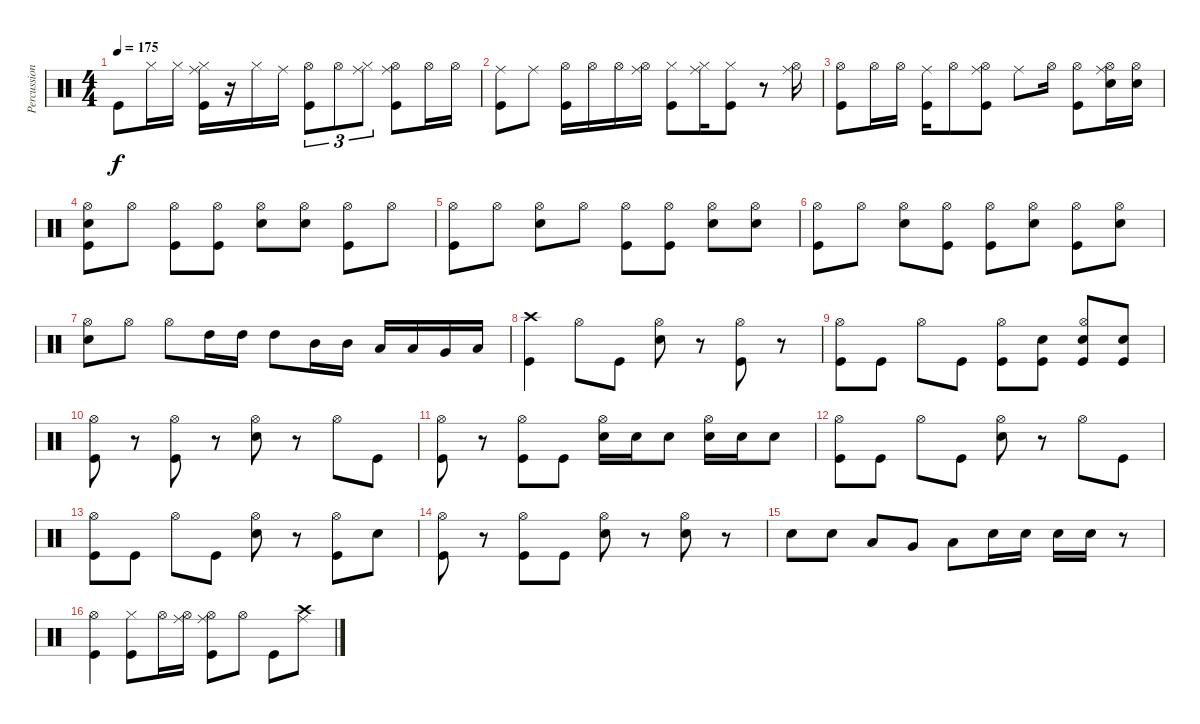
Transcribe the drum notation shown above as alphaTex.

\track ("Percussions" "Percussion") {instrument percussion}
\staff {score}
\articulation defaults
\ts (4 4)
\tempo 175
\clef neutral
\ks c "Kick (hit)".8{dy f} "Hi-Hat (closed)".16 "Hi-Hat (closed)".16
("Hi-Hat (closed)" "Ride (middle)" "Kick (hit)").16 r.16 "Hi-Hat (closed)".16 "Ride (middle)".16 ("Hi-Hat (open)" "Kick (hit)").8{tu (3 2)} "Hi-Hat (open)".8{tu (3 2)} ("Hi-Hat (closed)" "Ride (middle)").8{tu (3 2)} ("Hi-Hat (open)" "Ride (middle)" "Kick (hit)").8 "Hi-Hat (open)".16 "Hi-Hat (open)".16 |
("Ride (middle)" "Kick (hit)").8 "Ride (middle)".8 ("Hi-Hat (open)" "Kick (hit)").16 "Hi-Hat (open)".16 "Hi-Hat (open)".16 ("Hi-Hat (open)" "Ride (middle)").16 ("Hi-Hat (closed)" "Kick (hit)").8 ("Hi-Hat (closed)" "Ride (middle)").16 ("Hi-Hat (closed)" "Kick (hit)").8 r.8 ("Hi-Hat (open)" "Ride (middle)").16 |
("Hi-Hat (open)" "Kick (hit)").8 "Hi-Hat (open)".16 "Hi-Hat (open)".16 ("Ride (middle)" "Kick (hit)").16 "Hi-Hat (open)".8 ("Hi-Hat (open)" "Ride (middle)" "Kick (hit)").8 "Ride (middle)".8 "Hi-Hat (open)".16 ("Hi-Hat (open)" "Kick (hit)").8 ("Hi-Hat (open)" "Ride (middle)" "Snare (hit) 2").16 ("Hi-Hat (open)" "Snare (hit) 2").16 |
("Hi-Hat (open)" "Snare (hit) 2" "Kick (hit)").8 "Hi-Hat (open)".8 ("Hi-Hat (open)" "Kick (hit)").8 ("Hi-Hat (open)" "Kick (hit)").8 ("Hi-Hat (open)" "Snare (hit) 2").8 ("Hi-Hat (open)" "Snare (hit) 2").8 ("Hi-Hat (open)" "Kick (hit)").8 "Hi-Hat (open)".8 |
("Hi-Hat (open)" "Kick (hit)").8 "Hi-Hat (open)".8 ("Hi-Hat (open)" "Snare (hit) 2").8 "Hi-Hat (open)".8 ("Hi-Hat (open)" "Kick (hit)").8 ("Hi-Hat (open)" "Kick (hit)").8 ("Hi-Hat (open)" "Snare (hit) 2").8 ("Hi-Hat (open)" "Snare (hit) 2").8 |
("Hi-Hat (open)" "Kick (hit)").8 "Hi-Hat (open)".8 ("Hi-Hat (open)" "Snare (hit) 2").8 ("Hi-Hat (open)" "Kick (hit)").8 ("Hi-Hat (open)" "Kick (hit)").8 ("Hi-Hat (open)" "Snare (hit) 2").8 ("Hi-Hat (open)" "Kick (hit)").8 ("Hi-Hat (open)" "Snare (hit) 2").8 |
("Hi-Hat (open)" "Snare (hit) 2").8 "Hi-Hat (open)".8 "Hi-Hat (open)".8 "High Tom (hit)".16 "High Tom (hit)".16 "High Tom (hit)".8 "Mid Tom (hit)".16 "Mid Tom (hit)".16 "Low Tom (hit)".16 "Low Tom (hit)".16 "Very Low Tom (hit)".16 "Low Floor Tom (hit)".16 |
("Crash high (hit)" "Kick (hit)").4 "Hi-Hat (open)".8 "Kick (hit)".8 ("Hi-Hat (open)" "Snare (hit) 2").8 r.8 ("Hi-Hat (open)" "Kick (hit)").8 r.8 |
("Hi-Hat (open)" "Kick (hit)").8 "Kick (hit)".8 "Hi-Hat (open)".8 "Kick (hit)".8 ("Hi-Hat (open)" "Kick (hit)").8 ("Snare (hit) 2" "Kick (hit)").8 ("Hi-Hat (open)" "Snare (hit) 2" "Kick (hit)").8 ("Snare (hit) 2" "Kick (hit)").8 |
("Hi-Hat (open)" "Kick (hit)").8 r.8 ("Hi-Hat (open)" "Kick (hit)").8 r.8 ("Hi-Hat (open)" "Snare (hit) 2").8 r.8 "Hi-Hat (open)".8 "Kick (hit)".8 |
("Hi-Hat (open)" "Kick (hit)").8 r.8 ("Hi-Hat (open)" "Kick (hit)").8 "Kick (hit)".8 ("Hi-Hat (open)" "Snare (hit) 2").16 "Snare (hit) 2".16 "Snare (hit) 2".8 ("Hi-Hat (open)" "Snare (hit) 2").16 "Snare (hit) 2".16 "Snare (hit) 2".8 |
("Hi-Hat (open)" "Kick (hit)").8 "Kick (hit)".8 "Hi-Hat (open)".8 "Kick (hit)".8 ("Hi-Hat (open)" "Snare (hit) 2").8 r.8 "Hi-Hat (open)".8 "Kick (hit)".8 |
("Hi-Hat (open)" "Kick (hit)").8 "Kick (hit)".8 "Hi-Hat (open)".8 "Kick (hit)".8 ("Hi-Hat (open)" "Snare (hit) 2").8 r.8 ("Hi-Hat (open)" "Kick (hit)").8 "Snare (hit) 2".8 |
("Hi-Hat (open)" "Kick (hit)").8 r.8 ("Hi-Hat (open)" "Kick (hit)").8 "Kick (hit)".8 ("Hi-Hat (open)" "Snare (hit) 2").8 r.8 ("Hi-Hat (open)" "Snare (hit) 2").8 r.8 |
"Snare (hit) 2".8 "Snare (hit) 2".8 "Low Tom (hit)".8 "Very Low Tom (hit)".8 "Low Floor Tom (hit)".8 "Snare (hit) 2".16 "Snare (hit) 2".16 "Snare (hit) 2".16 "Snare (hit) 2".16 r.8 |
("Hi-Hat (open)" "Kick (hit)").4 ("Hi-Hat (closed)" "Kick (hit)").8 "Hi-Hat (open)".16 ("Hi-Hat (open)" "Ride (middle)").16 ("Hi-Hat (open)" "Ride (middle)" "Kick (hit)").8 "Hi-Hat (open)".8 "Kick (hit)".8 ("Crash high (hit)" "Ride (middle)").8
